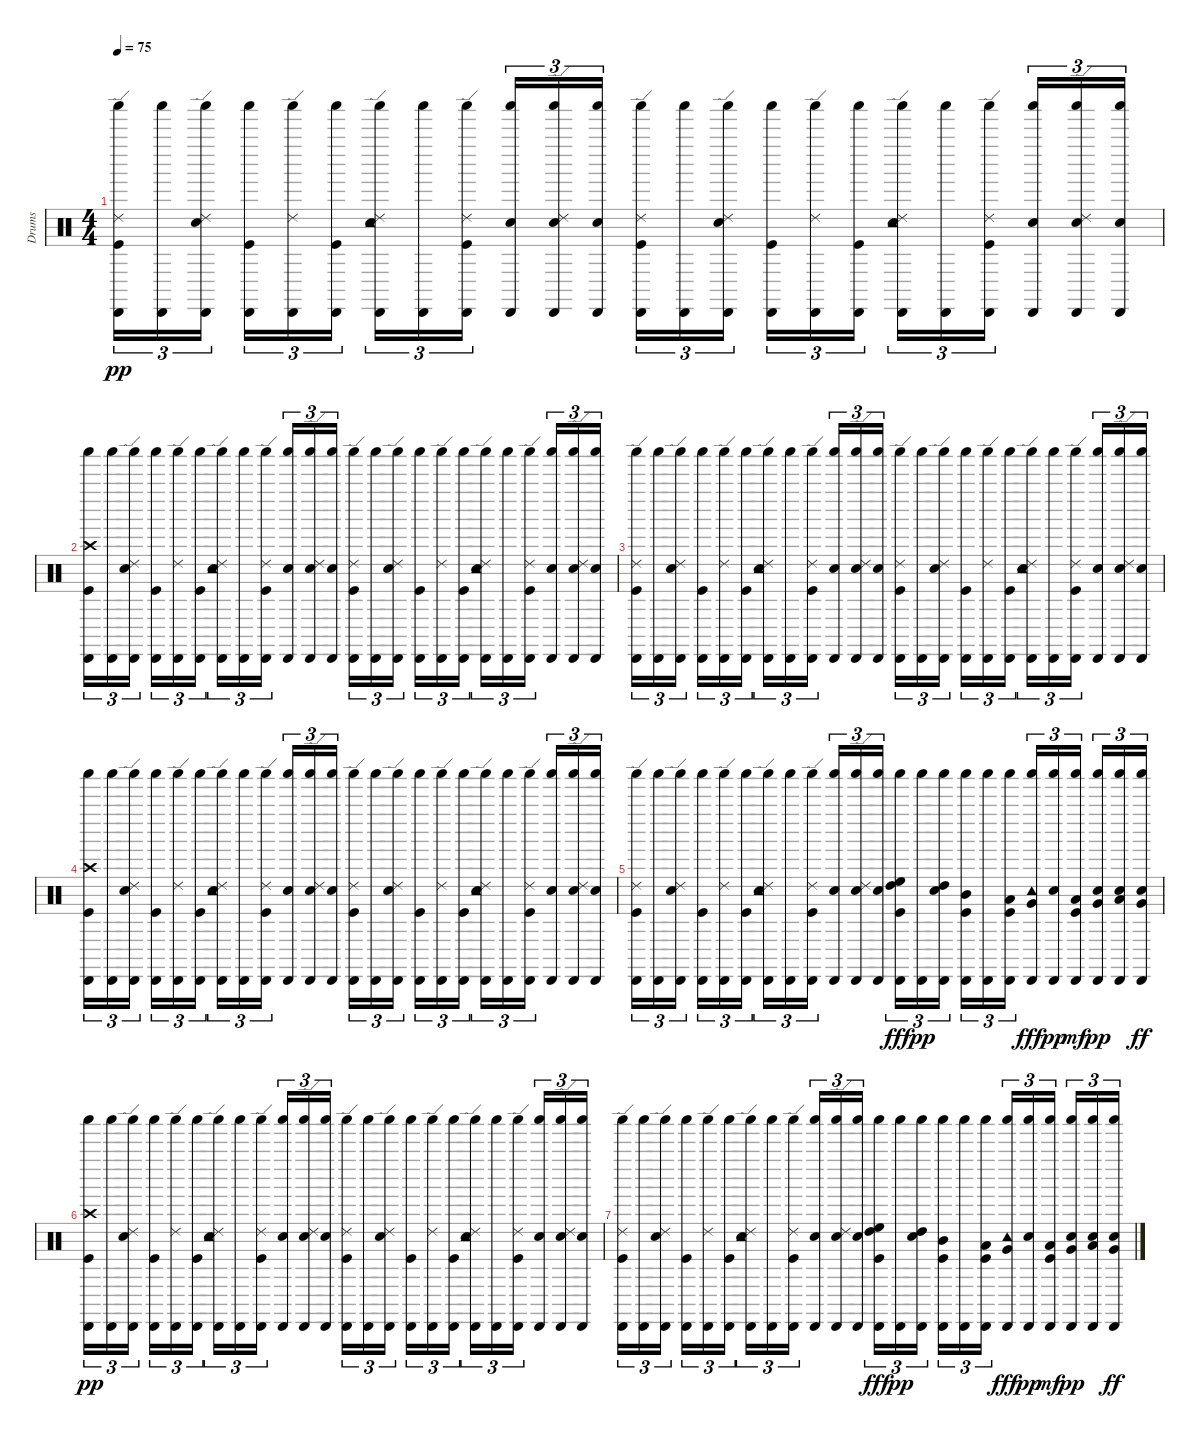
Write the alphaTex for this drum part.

\track ("Drums" "Drums") {instrument percussion}
\staff {score}
\articulation defaults
\ts (4 4)
\tempo 75
\clef neutral
\ks c
("Cabasa (hit)" "Ride (edge) 2" "Kick (hit)" "Shaker (hit)").16{tu (3 2) dy pp} ("Cabasa (hit)" "Shaker (hit)").16{tu (3 2)} ("Cabasa (hit)" "Electric Snare (hit)" "Ride (edge) 2" "Shaker (hit)").16{tu (3 2)} ("Kick (hit)" "Cabasa (hit)" "Shaker (hit)").16{tu (3 2)} ("Ride (edge) 2" "Cabasa (hit)" "Shaker (hit)").16{tu (3 2)} ("Kick (hit)" "Cabasa (hit)" "Shaker (hit)").16{tu (3 2)} ("Ride (edge) 2" "Cabasa (hit)" "Electric Snare (hit)" "Tambourine (hit)" "Shaker (hit)").16{tu (3 2)} ("Cabasa (hit)" "Shaker (hit)").16{tu (3 2)} ("Cabasa (hit)" "Kick (hit)" "Ride (edge) 2" "Shaker (hit)").16{tu (3 2)} ("Cabasa (hit)" "Electric Snare (hit)" "Shaker (hit)").16{tu (3 2)} ("Cabasa (hit)" "Ride (edge) 2" "Electric Snare (hit)" "Shaker (hit)").16{tu (3 2)} ("Cabasa (hit)" "Electric Snare (hit)" "Shaker (hit)").16{tu (3 2)} ("Kick (hit)" "Ride (edge) 2" "Cabasa (hit)" "Shaker (hit)").16{tu (3 2)} ("Cabasa (hit)" "Shaker (hit)").16{tu (3 2)} ("Cabasa (hit)" "Electric Snare (hit)" "Ride (edge) 2" "Shaker (hit)").16{tu (3 2)} ("Kick (hit)" "Cabasa (hit)" "Shaker (hit)").16{tu (3 2)} ("Cabasa (hit)" "Ride (edge) 2" "Shaker (hit)").16{tu (3 2)} ("Kick (hit)" "Cabasa (hit)" "Shaker (hit)").16{tu (3 2)} ("Cabasa (hit)" "Ride (edge) 2" "Electric Snare (hit)" "Tambourine (hit)" "Shaker (hit)").16{tu (3 2)} ("Cabasa (hit)" "Shaker (hit)").16{tu (3 2)} ("Ride (edge) 2" "Kick (hit)" "Cabasa (hit)" "Shaker (hit)").16{tu (3 2)} ("Cabasa (hit)" "Electric Snare (hit)" "Shaker (hit)").16{tu (3 2)} ("Electric Snare (hit)" "Cabasa (hit)" "Ride (edge) 2" "Shaker (hit)").16{tu (3 2)} ("Cabasa (hit)" "Electric Snare (hit)" "Shaker (hit)").16{tu (3 2)} |
("Kick (hit)" "Cabasa (hit)" "Crash high (hit)" "Shaker (hit)").16{tu (3 2)} ("Cabasa (hit)" "Shaker (hit)").16{tu (3 2)} ("Cabasa (hit)" "Ride (edge) 2" "Electric Snare (hit)" "Shaker (hit)").16{tu (3 2)} ("Kick (hit)" "Cabasa (hit)" "Shaker (hit)").16{tu (3 2)} ("Cabasa (hit)" "Ride (edge) 2" "Shaker (hit)").16{tu (3 2)} ("Kick (hit)" "Cabasa (hit)" "Shaker (hit)").16{tu (3 2)} ("Electric Snare (hit)" "Ride (edge) 2" "Cabasa (hit)" "Tambourine (hit)" "Shaker (hit)").16{tu (3 2)} ("Cabasa (hit)" "Shaker (hit)").16{tu (3 2)} ("Ride (edge) 2" "Kick (hit)" "Cabasa (hit)" "Shaker (hit)").16{tu (3 2)} ("Electric Snare (hit)" "Cabasa (hit)" "Shaker (hit)").16{tu (3 2)} ("Cabasa (hit)" "Electric Snare (hit)" "Ride (edge) 2" "Shaker (hit)").16{tu (3 2)} ("Cabasa (hit)" "Electric Snare (hit)" "Shaker (hit)").16{tu (3 2)} ("Ride (edge) 2" "Kick (hit)" "Cabasa (hit)" "Shaker (hit)").16{tu (3 2)} ("Cabasa (hit)" "Shaker (hit)").16{tu (3 2)} ("Cabasa (hit)" "Electric Snare (hit)" "Ride (edge) 2" "Shaker (hit)").16{tu (3 2)} ("Kick (hit)" "Cabasa (hit)" "Shaker (hit)").16{tu (3 2)} ("Ride (edge) 2" "Cabasa (hit)" "Shaker (hit)").16{tu (3 2)} ("Kick (hit)" "Cabasa (hit)" "Shaker (hit)").16{tu (3 2)} ("Electric Snare (hit)" "Ride (edge) 2" "Cabasa (hit)" "Tambourine (hit)" "Shaker (hit)").16{tu (3 2)} ("Cabasa (hit)" "Shaker (hit)").16{tu (3 2)} ("Ride (edge) 2" "Kick (hit)" "Cabasa (hit)" "Shaker (hit)").16{tu (3 2)} ("Cabasa (hit)" "Electric Snare (hit)" "Shaker (hit)").16{tu (3 2)} ("Electric Snare (hit)" "Cabasa (hit)" "Ride (edge) 2" "Shaker (hit)").16{tu (3 2)} ("Cabasa (hit)" "Electric Snare (hit)" "Shaker (hit)").16{tu (3 2)} |
("Cabasa (hit)" "Ride (edge) 2" "Kick (hit)" "Shaker (hit)").16{tu (3 2)} ("Cabasa (hit)" "Shaker (hit)").16{tu (3 2)} ("Cabasa (hit)" "Electric Snare (hit)" "Ride (edge) 2" "Shaker (hit)").16{tu (3 2)} ("Kick (hit)" "Cabasa (hit)" "Shaker (hit)").16{tu (3 2)} ("Ride (edge) 2" "Cabasa (hit)" "Shaker (hit)").16{tu (3 2)} ("Kick (hit)" "Cabasa (hit)" "Shaker (hit)").16{tu (3 2)} ("Ride (edge) 2" "Cabasa (hit)" "Electric Snare (hit)" "Tambourine (hit)" "Shaker (hit)").16{tu (3 2)} ("Cabasa (hit)" "Shaker (hit)").16{tu (3 2)} ("Cabasa (hit)" "Kick (hit)" "Ride (edge) 2" "Shaker (hit)").16{tu (3 2)} ("Cabasa (hit)" "Electric Snare (hit)" "Shaker (hit)").16{tu (3 2)} ("Cabasa (hit)" "Ride (edge) 2" "Electric Snare (hit)" "Shaker (hit)").16{tu (3 2)} ("Cabasa (hit)" "Electric Snare (hit)" "Shaker (hit)").16{tu (3 2)} ("Kick (hit)" "Ride (edge) 2" "Cabasa (hit)" "Shaker (hit)").16{tu (3 2)} ("Cabasa (hit)" "Shaker (hit)").16{tu (3 2)} ("Cabasa (hit)" "Electric Snare (hit)" "Ride (edge) 2" "Shaker (hit)").16{tu (3 2)} ("Kick (hit)" "Cabasa (hit)" "Shaker (hit)").16{tu (3 2)} ("Cabasa (hit)" "Ride (edge) 2" "Shaker (hit)").16{tu (3 2)} ("Kick (hit)" "Cabasa (hit)" "Shaker (hit)").16{tu (3 2)} ("Cabasa (hit)" "Ride (edge) 2" "Electric Snare (hit)" "Tambourine (hit)" "Shaker (hit)").16{tu (3 2)} ("Cabasa (hit)" "Shaker (hit)").16{tu (3 2)} ("Ride (edge) 2" "Kick (hit)" "Cabasa (hit)" "Shaker (hit)").16{tu (3 2)} ("Cabasa (hit)" "Electric Snare (hit)" "Shaker (hit)").16{tu (3 2)} ("Electric Snare (hit)" "Cabasa (hit)" "Ride (edge) 2" "Shaker (hit)").16{tu (3 2)} ("Cabasa (hit)" "Electric Snare (hit)" "Shaker (hit)").16{tu (3 2)} |
("Kick (hit)" "Cabasa (hit)" "Crash high (hit)" "Shaker (hit)").16{tu (3 2) volume 0} ("Cabasa (hit)" "Shaker (hit)").16{tu (3 2)} ("Cabasa (hit)" "Ride (edge) 2" "Electric Snare (hit)" "Shaker (hit)").16{tu (3 2)} ("Kick (hit)" "Cabasa (hit)" "Shaker (hit)").16{tu (3 2)} ("Cabasa (hit)" "Ride (edge) 2" "Shaker (hit)").16{tu (3 2)} ("Kick (hit)" "Cabasa (hit)" "Shaker (hit)").16{tu (3 2)} ("Electric Snare (hit)" "Ride (edge) 2" "Cabasa (hit)" "Tambourine (hit)" "Shaker (hit)").16{tu (3 2)} ("Cabasa (hit)" "Shaker (hit)").16{tu (3 2)} ("Ride (edge) 2" "Kick (hit)" "Cabasa (hit)" "Shaker (hit)").16{tu (3 2)} ("Electric Snare (hit)" "Cabasa (hit)" "Shaker (hit)").16{tu (3 2)} ("Cabasa (hit)" "Electric Snare (hit)" "Ride (edge) 2" "Shaker (hit)").16{tu (3 2)} ("Cabasa (hit)" "Electric Snare (hit)" "Shaker (hit)").16{tu (3 2)} ("Ride (edge) 2" "Kick (hit)" "Cabasa (hit)" "Shaker (hit)").16{tu (3 2)} ("Cabasa (hit)" "Shaker (hit)").16{tu (3 2)} ("Cabasa (hit)" "Electric Snare (hit)" "Ride (edge) 2" "Shaker (hit)").16{tu (3 2)} ("Kick (hit)" "Cabasa (hit)" "Shaker (hit)").16{tu (3 2)} ("Ride (edge) 2" "Cabasa (hit)" "Shaker (hit)").16{tu (3 2)} ("Kick (hit)" "Cabasa (hit)" "Shaker (hit)").16{tu (3 2)} ("Electric Snare (hit)" "Ride (edge) 2" "Cabasa (hit)" "Tambourine (hit)" "Shaker (hit)").16{tu (3 2)} ("Cabasa (hit)" "Shaker (hit)").16{tu (3 2)} ("Ride (edge) 2" "Kick (hit)" "Cabasa (hit)" "Shaker (hit)").16{tu (3 2)} ("Cabasa (hit)" "Electric Snare (hit)" "Shaker (hit)").16{tu (3 2)} ("Electric Snare (hit)" "Cabasa (hit)" "Ride (edge) 2" "Shaker (hit)").16{tu (3 2)} ("Cabasa (hit)" "Electric Snare (hit)" "Shaker (hit)").16{tu (3 2)} |
("Cabasa (hit)" "Ride (edge) 2" "Kick (hit)" "Shaker (hit)").16{tu (3 2)} ("Cabasa (hit)" "Shaker (hit)").16{tu (3 2)} ("Cabasa (hit)" "Electric Snare (hit)" "Ride (edge) 2" "Shaker (hit)").16{tu (3 2)} ("Kick (hit)" "Cabasa (hit)" "Shaker (hit)").16{tu (3 2)} ("Ride (edge) 2" "Cabasa (hit)" "Shaker (hit)").16{tu (3 2)} ("Cabasa (hit)" "Kick (hit)" "Shaker (hit)").16{tu (3 2)} ("Cabasa (hit)" "Electric Snare (hit)" "Ride (edge) 2" "Tambourine (hit)" "Shaker (hit)").16{tu (3 2)} ("Cabasa (hit)" "Shaker (hit)").16{tu (3 2)} ("Kick (hit)" "Cabasa (hit)" "Ride (edge) 2" "Shaker (hit)").16{tu (3 2)} ("Cabasa (hit)" "Electric Snare (hit)" "Shaker (hit)").16{tu (3 2)} ("Electric Snare (hit)" "Ride (edge) 2" "Cabasa (hit)" "Shaker (hit)").16{tu (3 2)} ("Cabasa (hit)" "Electric Snare (hit)" "Shaker (hit)").16{tu (3 2)} ("High Floor Tom (hit)" "Kick (hit)" "Cabasa (hit)" "Shaker (hit)" "High Tom (hit)").16{tu (3 2) dy fff} ("Cabasa (hit)" "Shaker (hit)").16{tu (3 2) dy pp} ("Cabasa (hit)" "Electric Snare (hit)" "High Tom (hit)" "Shaker (hit)").16{tu (3 2)} ("Kick (hit)" "Cabasa (hit)" "Mid Tom (hit)" "Shaker (hit)").16{tu (3 2)} ("Cabasa (hit)" "Shaker (hit)").16{tu (3 2)} ("Low Tom (hit)" "Kick (hit)" "Cabasa (hit)" "Shaker (hit)").16{tu (3 2)} ("Very Low Tom (hit)" "Cabasa (hit)" "Shaker (hit)" "Tambourine (hit)").16{tu (3 2) dy fff} ("Cabasa (hit)" "Electric Snare (hit)" "Shaker (hit)").16{tu (3 2) dy pp} ("Cabasa (hit)" "Kick (hit)" "Shaker (hit)" "Low Tom (hit)").16{tu (3 2) dy mf} ("Cabasa (hit)" "Electric Snare (hit)" "Shaker (hit)" "Very Low Tom (hit)").16{tu (3 2) dy pp} ("Electric Snare (hit)" "Cabasa (hit)" "Low Tom (hit)" "Shaker (hit)").16{tu (3 2)} ("Cabasa (hit)" "Electric Snare (hit)" "Shaker (hit)" "Very Low Tom (hit)").16{tu (3 2) dy ff} |
("Kick (hit)" "Cabasa (hit)" "Crash high (hit)" "Shaker (hit)").16{tu (3 2) dy pp} ("Cabasa (hit)" "Shaker (hit)").16{tu (3 2)} ("Cabasa (hit)" "Ride (edge) 2" "Electric Snare (hit)" "Shaker (hit)").16{tu (3 2)} ("Kick (hit)" "Cabasa (hit)" "Shaker (hit)").16{tu (3 2)} ("Cabasa (hit)" "Ride (edge) 2" "Shaker (hit)").16{tu (3 2)} ("Kick (hit)" "Cabasa (hit)" "Shaker (hit)").16{tu (3 2)} ("Electric Snare (hit)" "Ride (edge) 2" "Cabasa (hit)" "Tambourine (hit)" "Shaker (hit)").16{tu (3 2)} ("Cabasa (hit)" "Shaker (hit)").16{tu (3 2)} ("Ride (edge) 2" "Kick (hit)" "Cabasa (hit)" "Shaker (hit)").16{tu (3 2)} ("Electric Snare (hit)" "Cabasa (hit)" "Shaker (hit)").16{tu (3 2)} ("Cabasa (hit)" "Electric Snare (hit)" "Ride (edge) 2" "Shaker (hit)").16{tu (3 2)} ("Cabasa (hit)" "Electric Snare (hit)" "Shaker (hit)").16{tu (3 2)} ("Ride (edge) 2" "Kick (hit)" "Cabasa (hit)" "Shaker (hit)").16{tu (3 2)} ("Cabasa (hit)" "Shaker (hit)").16{tu (3 2)} ("Cabasa (hit)" "Electric Snare (hit)" "Ride (edge) 2" "Shaker (hit)").16{tu (3 2)} ("Kick (hit)" "Cabasa (hit)" "Shaker (hit)").16{tu (3 2)} ("Ride (edge) 2" "Cabasa (hit)" "Shaker (hit)").16{tu (3 2)} ("Kick (hit)" "Cabasa (hit)" "Shaker (hit)").16{tu (3 2)} ("Electric Snare (hit)" "Ride (edge) 2" "Cabasa (hit)" "Tambourine (hit)" "Shaker (hit)").16{tu (3 2)} ("Cabasa (hit)" "Shaker (hit)").16{tu (3 2)} ("Ride (edge) 2" "Kick (hit)" "Cabasa (hit)" "Shaker (hit)").16{tu (3 2)} ("Cabasa (hit)" "Electric Snare (hit)" "Shaker (hit)").16{tu (3 2)} ("Electric Snare (hit)" "Cabasa (hit)" "Ride (edge) 2" "Shaker (hit)").16{tu (3 2)} ("Cabasa (hit)" "Electric Snare (hit)" "Shaker (hit)").16{tu (3 2)} |
("Cabasa (hit)" "Ride (edge) 2" "Kick (hit)" "Shaker (hit)").16{tu (3 2)} ("Cabasa (hit)" "Shaker (hit)").16{tu (3 2)} ("Cabasa (hit)" "Electric Snare (hit)" "Ride (edge) 2" "Shaker (hit)").16{tu (3 2)} ("Kick (hit)" "Cabasa (hit)" "Shaker (hit)").16{tu (3 2)} ("Ride (edge) 2" "Cabasa (hit)" "Shaker (hit)").16{tu (3 2)} ("Cabasa (hit)" "Kick (hit)" "Shaker (hit)").16{tu (3 2)} ("Cabasa (hit)" "Electric Snare (hit)" "Ride (edge) 2" "Tambourine (hit)" "Shaker (hit)").16{tu (3 2)} ("Cabasa (hit)" "Shaker (hit)").16{tu (3 2)} ("Kick (hit)" "Cabasa (hit)" "Ride (edge) 2" "Shaker (hit)").16{tu (3 2)} ("Cabasa (hit)" "Electric Snare (hit)" "Shaker (hit)").16{tu (3 2)} ("Electric Snare (hit)" "Ride (edge) 2" "Cabasa (hit)" "Shaker (hit)").16{tu (3 2)} ("Cabasa (hit)" "Electric Snare (hit)" "Shaker (hit)").16{tu (3 2)} ("High Floor Tom (hit)" "Kick (hit)" "Cabasa (hit)" "Shaker (hit)" "High Tom (hit)").16{tu (3 2) dy fff} ("Cabasa (hit)" "Shaker (hit)").16{tu (3 2) dy pp} ("Cabasa (hit)" "Electric Snare (hit)" "High Tom (hit)" "Shaker (hit)").16{tu (3 2)} ("Kick (hit)" "Cabasa (hit)" "Mid Tom (hit)" "Shaker (hit)").16{tu (3 2)} ("Cabasa (hit)" "Shaker (hit)").16{tu (3 2)} ("Low Tom (hit)" "Kick (hit)" "Cabasa (hit)" "Shaker (hit)").16{tu (3 2)} ("Very Low Tom (hit)" "Cabasa (hit)" "Shaker (hit)" "Tambourine (hit)").16{tu (3 2) dy fff} ("Cabasa (hit)" "Electric Snare (hit)" "Shaker (hit)").16{tu (3 2) dy pp} ("Cabasa (hit)" "Kick (hit)" "Shaker (hit)" "Low Tom (hit)").16{tu (3 2) dy mf} ("Cabasa (hit)" "Electric Snare (hit)" "Shaker (hit)" "Very Low Tom (hit)").16{tu (3 2) dy pp} ("Electric Snare (hit)" "Cabasa (hit)" "Low Tom (hit)" "Shaker (hit)").16{tu (3 2)} ("Cabasa (hit)" "Electric Snare (hit)" "Shaker (hit)" "Very Low Tom (hit)").16{tu (3 2) dy ff}
